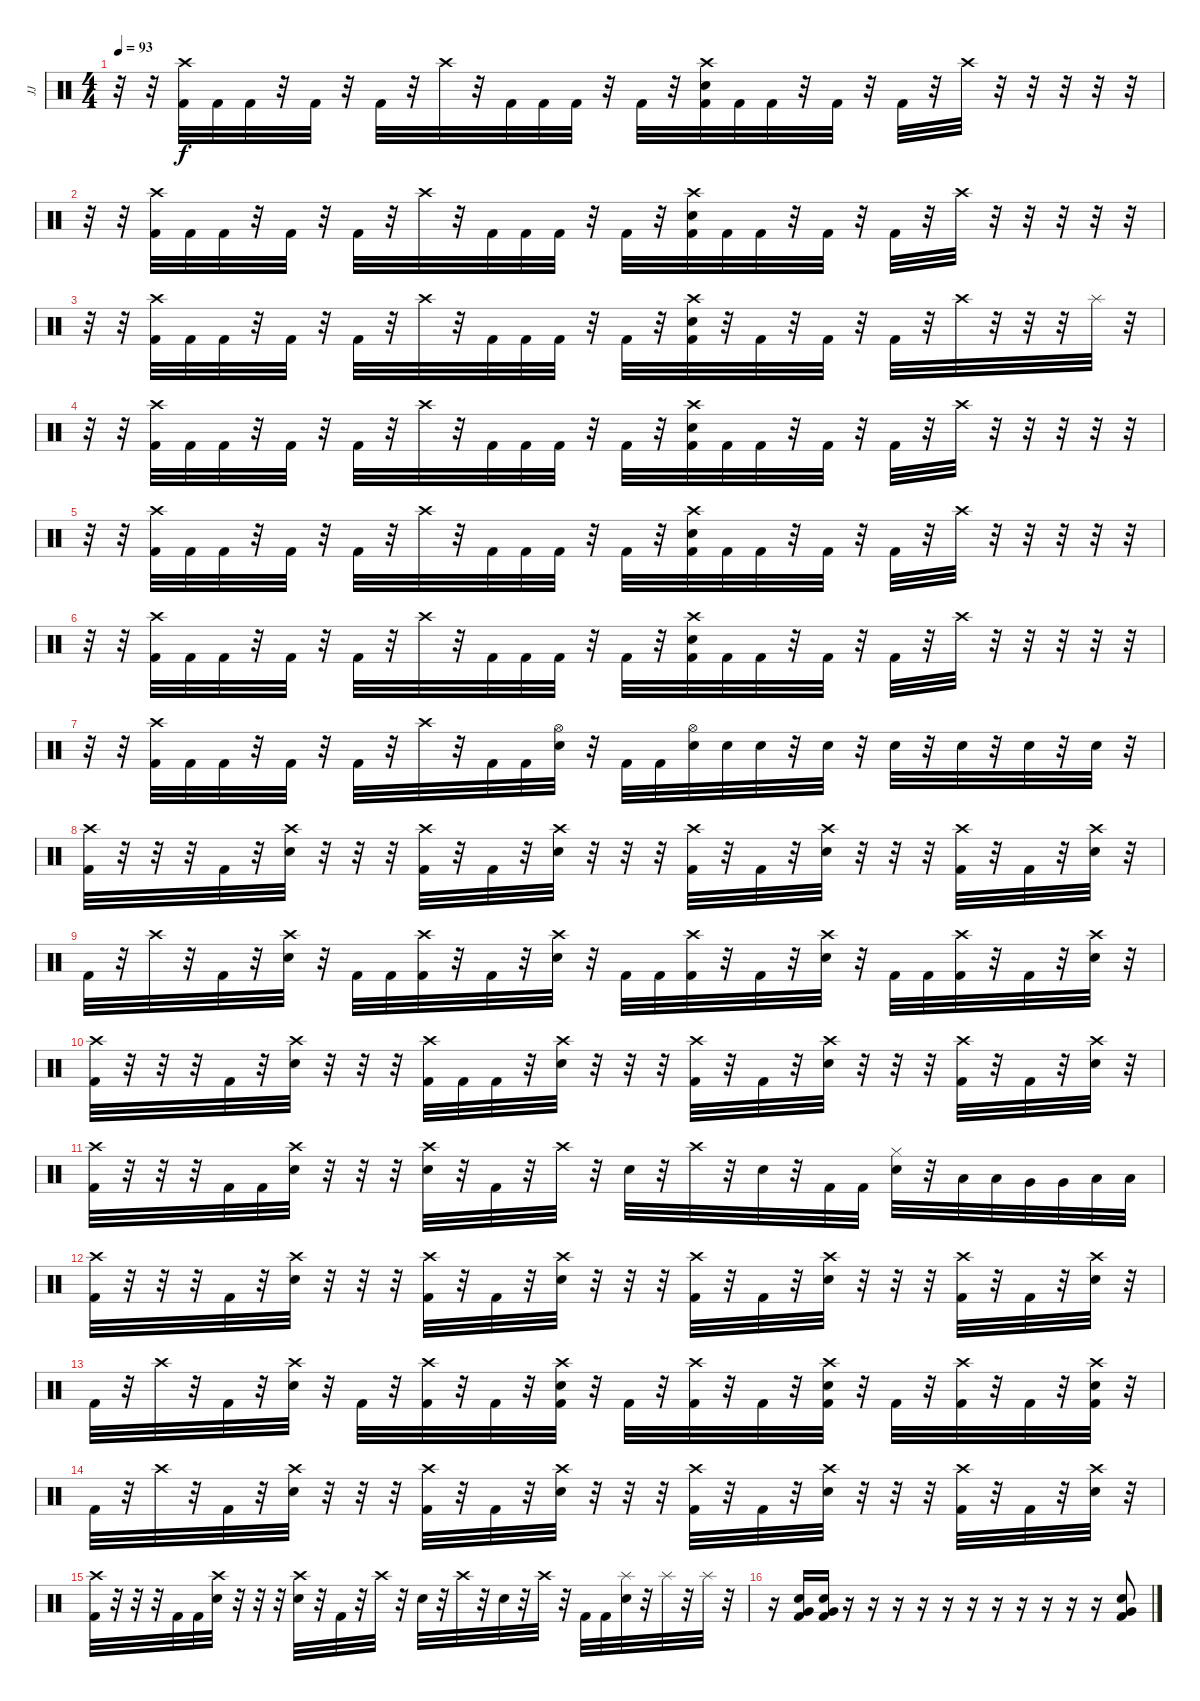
\track ("JJ" "JJ") {instrument percussion}
\staff {score}
\articulation defaults
\ts (4 4)
\tempo 93
\clef neutral
\ks c
r.32{dy f} r.32 ("Crash high (hit)" "Kick (hit) 2").32 "Kick (hit) 2".32 "Kick (hit) 2".32 r.32 "Kick (hit) 2".32 r.32 "Kick (hit) 2".32 r.32 "Crash high (hit)".32 r.32 "Kick (hit) 2".32 "Kick (hit) 2".32 "Kick (hit) 2".32 r.32 "Kick (hit) 2".32 r.32 ("Crash high (hit)" "Electric Snare (hit)" "Kick (hit) 2").32 "Kick (hit) 2".32 "Kick (hit) 2".32 r.32 "Kick (hit) 2".32 r.32 "Kick (hit) 2".32 r.32 "Crash high (hit)".32 r.32 r.32 r.32 r.32 r.32 |
r.32 r.32 ("Crash high (hit)" "Kick (hit) 2").32 "Kick (hit) 2".32 "Kick (hit) 2".32 r.32 "Kick (hit) 2".32 r.32 "Kick (hit) 2".32 r.32 "Crash high (hit)".32 r.32 "Kick (hit) 2".32 "Kick (hit) 2".32 "Kick (hit) 2".32 r.32 "Kick (hit) 2".32 r.32 ("Crash high (hit)" "Electric Snare (hit)" "Kick (hit) 2").32 "Kick (hit) 2".32 "Kick (hit) 2".32 r.32 "Kick (hit) 2".32 r.32 "Kick (hit) 2".32 r.32 "Crash high (hit)".32 r.32 r.32 r.32 r.32 r.32 |
r.32 r.32 ("Crash high (hit)" "Kick (hit) 2").32 "Kick (hit) 2".32 "Kick (hit) 2".32 r.32 "Kick (hit) 2".32 r.32 "Kick (hit) 2".32 r.32 "Crash high (hit)".32 r.32 "Kick (hit) 2".32 "Kick (hit) 2".32 "Kick (hit) 2".32 r.32 "Kick (hit) 2".32 r.32 ("Crash high (hit)" "Electric Snare (hit)" "Kick (hit) 2").32 r.32 "Kick (hit) 2".32 r.32 "Kick (hit) 2".32 r.32 "Kick (hit) 2".32 r.32 "Crash high (hit)".32 r.32 r.32 r.32 "Splash (hit)".32 r.32 |
r.32 r.32 ("Crash high (hit)" "Kick (hit) 2").32 "Kick (hit) 2".32 "Kick (hit) 2".32 r.32 "Kick (hit) 2".32 r.32 "Kick (hit) 2".32 r.32 "Crash high (hit)".32 r.32 "Kick (hit) 2".32 "Kick (hit) 2".32 "Kick (hit) 2".32 r.32 "Kick (hit) 2".32 r.32 ("Crash high (hit)" "Electric Snare (hit)" "Kick (hit) 2").32 "Kick (hit) 2".32 "Kick (hit) 2".32 r.32 "Kick (hit) 2".32 r.32 "Kick (hit) 2".32 r.32 "Crash high (hit)".32 r.32 r.32 r.32 r.32 r.32 |
r.32 r.32 ("Crash high (hit)" "Kick (hit) 2").32 "Kick (hit) 2".32 "Kick (hit) 2".32 r.32 "Kick (hit) 2".32 r.32 "Kick (hit) 2".32 r.32 "Crash high (hit)".32 r.32 "Kick (hit) 2".32 "Kick (hit) 2".32 "Kick (hit) 2".32 r.32 "Kick (hit) 2".32 r.32 ("Crash high (hit)" "Electric Snare (hit)" "Kick (hit) 2").32 "Kick (hit) 2".32 "Kick (hit) 2".32 r.32 "Kick (hit) 2".32 r.32 "Kick (hit) 2".32 r.32 "Crash high (hit)".32 r.32 r.32 r.32 r.32 r.32 |
r.32 r.32 ("Crash high (hit)" "Kick (hit) 2").32 "Kick (hit) 2".32 "Kick (hit) 2".32 r.32 "Kick (hit) 2".32 r.32 "Kick (hit) 2".32 r.32 "Crash high (hit)".32 r.32 "Kick (hit) 2".32 "Kick (hit) 2".32 "Kick (hit) 2".32 r.32 "Kick (hit) 2".32 r.32 ("Crash high (hit)" "Electric Snare (hit)" "Kick (hit) 2").32 "Kick (hit) 2".32 "Kick (hit) 2".32 r.32 "Kick (hit) 2".32 r.32 "Kick (hit) 2".32 r.32 "Crash high (hit)".32 r.32 r.32 r.32 r.32 r.32 |
r.32 r.32 ("Crash high (hit)" "Kick (hit) 2").32 "Kick (hit) 2".32 "Kick (hit) 2".32 r.32 "Kick (hit) 2".32 r.32 "Kick (hit) 2".32 r.32 "Crash high (hit)".32 r.32 "Kick (hit) 2".32 "Kick (hit) 2".32 ("Hi-Hat (open)" "Electric Snare (hit)").32 r.32 "Kick (hit) 2".32 "Kick (hit) 2".32 ("Hi-Hat (open)" "Electric Snare (hit)").32 "Electric Snare (hit)".32 "Electric Snare (hit)".32 r.32 "Electric Snare (hit)".32 r.32 "Electric Snare (hit)".32 r.32 "Electric Snare (hit)".32 r.32 "Electric Snare (hit)".32 r.32 "Electric Snare (hit)".32 r.32 |
("Crash high (hit)" "Kick (hit) 2").32 r.32 r.32 r.32 "Kick (hit) 2".32 r.32 ("Crash high (hit)" "Electric Snare (hit)").32 r.32 r.32 r.32 ("Crash high (hit)" "Kick (hit) 2").32 r.32 "Kick (hit) 2".32 r.32 ("Crash high (hit)" "Electric Snare (hit)").32 r.32 r.32 r.32 ("Crash high (hit)" "Kick (hit) 2").32 r.32 "Kick (hit) 2".32 r.32 ("Crash high (hit)" "Electric Snare (hit)").32 r.32 r.32 r.32 ("Crash high (hit)" "Kick (hit) 2").32 r.32 "Kick (hit) 2".32 r.32 ("Crash high (hit)" "Electric Snare (hit)").32 r.32 |
"Kick (hit) 2".32 r.32 "Crash high (hit)".32 r.32 "Kick (hit) 2".32 r.32 ("Crash high (hit)" "Electric Snare (hit)").32 r.32 "Kick (hit) 2".32 "Kick (hit) 2".32 ("Crash high (hit)" "Kick (hit) 2").32 r.32 "Kick (hit) 2".32 r.32 ("Crash high (hit)" "Electric Snare (hit)").32 r.32 "Kick (hit) 2".32 "Kick (hit) 2".32 ("Crash high (hit)" "Kick (hit) 2").32 r.32 "Kick (hit) 2".32 r.32 ("Crash high (hit)" "Electric Snare (hit)").32 r.32 "Kick (hit) 2".32 "Kick (hit) 2".32 ("Crash high (hit)" "Kick (hit) 2").32 r.32 "Kick (hit) 2".32 r.32 ("Crash high (hit)" "Electric Snare (hit)").32 r.32 |
("Crash high (hit)" "Kick (hit) 2").32 r.32 r.32 r.32 "Kick (hit) 2".32 r.32 ("Crash high (hit)" "Electric Snare (hit)").32 r.32 r.32 r.32 ("Crash high (hit)" "Kick (hit) 2").32 "Kick (hit) 2".32 "Kick (hit) 2".32 r.32 ("Crash high (hit)" "Electric Snare (hit)").32 r.32 r.32 r.32 ("Crash high (hit)" "Kick (hit) 2").32 r.32 "Kick (hit) 2".32 r.32 ("Crash high (hit)" "Electric Snare (hit)").32 r.32 r.32 r.32 ("Crash high (hit)" "Kick (hit) 2").32 r.32 "Kick (hit) 2".32 r.32 ("Crash high (hit)" "Electric Snare (hit)").32 r.32 |
("Crash high (hit)" "Kick (hit) 2").32 r.32 r.32 r.32 "Kick (hit) 2".32 "Kick (hit) 2".32 ("Crash high (hit)" "Electric Snare (hit)").32 r.32 r.32 r.32 ("Crash high (hit)" "Electric Snare (hit)").32 r.32 "Kick (hit) 2".32 r.32 "Crash high (hit)".32 r.32 "Electric Snare (hit)".32 r.32 "Crash high (hit)".32 r.32 "Electric Snare (hit)".32 r.32 "Kick (hit) 2".32 "Kick (hit) 2".32 ("Hi-Hat (closed)" "Electric Snare (hit)").32 r.32 "Low Tom (hit)".32 "Low Tom (hit)".32 "Very Low Tom (hit)".32 "Very Low Tom (hit)".32 "Low Floor Tom (hit)".32 "Low Floor Tom (hit)".32 |
("Crash high (hit)" "Kick (hit) 2").32 r.32 r.32 r.32 "Kick (hit) 2".32 r.32 ("Crash high (hit)" "Electric Snare (hit)").32 r.32 r.32 r.32 ("Crash high (hit)" "Kick (hit) 2").32 r.32 "Kick (hit) 2".32 r.32 ("Crash high (hit)" "Electric Snare (hit)").32 r.32 r.32 r.32 ("Crash high (hit)" "Kick (hit) 2").32 r.32 "Kick (hit) 2".32 r.32 ("Crash high (hit)" "Electric Snare (hit)").32 r.32 r.32 r.32 ("Crash high (hit)" "Kick (hit) 2").32 r.32 "Kick (hit) 2".32 r.32 ("Crash high (hit)" "Electric Snare (hit)").32 r.32 |
"Kick (hit) 2".32 r.32 "Crash high (hit)".32 r.32 "Kick (hit) 2".32 r.32 ("Crash high (hit)" "Electric Snare (hit)").32 r.32 "Kick (hit) 2".32 r.32 ("Crash high (hit)" "Kick (hit) 2").32 r.32 "Kick (hit) 2".32 r.32 ("Crash high (hit)" "Electric Snare (hit)" "Kick (hit) 2").32 r.32 "Kick (hit) 2".32 r.32 ("Crash high (hit)" "Kick (hit) 2").32 r.32 "Kick (hit) 2".32 r.32 ("Crash high (hit)" "Electric Snare (hit)" "Kick (hit) 2").32 r.32 "Kick (hit) 2".32 r.32 ("Crash high (hit)" "Kick (hit) 2").32 r.32 "Kick (hit) 2".32 r.32 ("Crash high (hit)" "Electric Snare (hit)" "Kick (hit) 2").32 r.32 |
"Kick (hit) 2".32 r.32 "Crash high (hit)".32 r.32 "Kick (hit) 2".32 r.32 ("Crash high (hit)" "Electric Snare (hit)").32 r.32 r.32 r.32 ("Crash high (hit)" "Kick (hit) 2").32 r.32 "Kick (hit) 2".32 r.32 ("Crash high (hit)" "Electric Snare (hit)").32 r.32 r.32 r.32 ("Crash high (hit)" "Kick (hit) 2").32 r.32 "Kick (hit) 2".32 r.32 ("Crash high (hit)" "Electric Snare (hit)").32 r.32 r.32 r.32 ("Crash high (hit)" "Kick (hit) 2").32 r.32 "Kick (hit) 2".32 r.32 ("Crash high (hit)" "Electric Snare (hit)").32 r.32 |
("Crash high (hit)" "Kick (hit) 2").32 r.32 r.32 r.32 "Kick (hit) 2".32 "Kick (hit) 2".32 ("Crash high (hit)" "Electric Snare (hit)").32 r.32 r.32 r.32 ("Crash high (hit)" "Electric Snare (hit)").32 r.32 "Kick (hit) 2".32 r.32 "Crash high (hit)".32 r.32 "Electric Snare (hit)".32 r.32 "Crash high (hit)".32 r.32 "Electric Snare (hit)".32 r.32 "Crash high (hit)".32 r.32 "Kick (hit) 2".32 "Kick (hit) 2".32 ("Splash (hit)" "Electric Snare (hit)").32 r.32 "Splash (hit)".32 r.32 "Splash (hit)".32 r.32 |
r.16 ("Very Low Tom (hit)" "Electric Snare (hit)" "Kick (hit) 2").16 ("Very Low Tom (hit)" "Electric Snare (hit)" "Kick (hit) 2").16 r.16 r.16 r.16 r.16 r.16 r.16 r.16 r.16 r.16 r.16 r.16 ("Very Low Tom (hit)" "Electric Snare (hit)" "Kick (hit) 2").8
